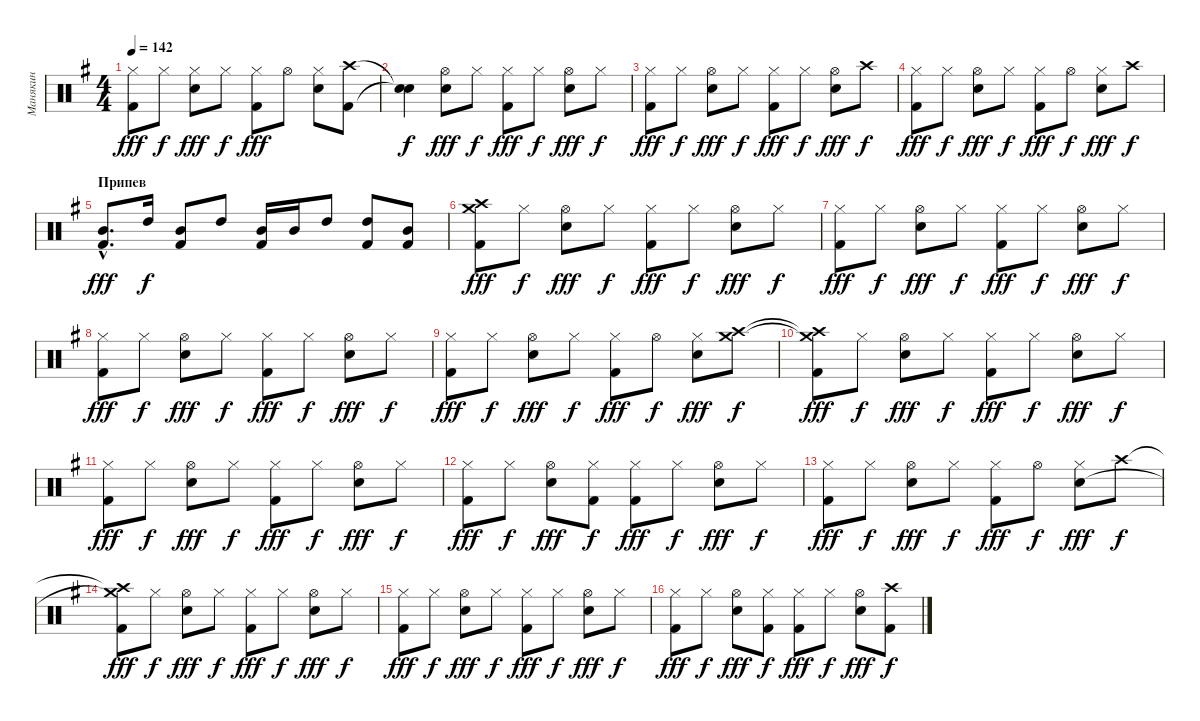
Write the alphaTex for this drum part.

\track ("Манякин" "Манякин") {instrument percussion}
\staff {score}
\articulation defaults
\ts (4 4)
\tempo 142
\clef neutral
\ks eminor
("Hi-Hat (closed)" "Kick (hit) 2").8{dy fff} "Hi-Hat (closed)".8{dy f} ("Hi-Hat (closed)" "Electric Snare (hit)").8{dy fff} "Hi-Hat (closed)".8{dy f} ("Hi-Hat (closed)" "Kick (hit) 2").8{dy fff} "Hi-Hat (open)".8 ("Hi-Hat (closed)" "Electric Snare (hit)").8 ("Crash high (hit)" "Kick (hit) 2").8 |
("Snare (hit)"{t} "Snare (hit)"{t}).4{dy f} ("Hi-Hat (open)" "Electric Snare (hit)").8{dy fff} "Hi-Hat (closed)".8{dy f} ("Hi-Hat (closed)" "Kick (hit) 2").8{dy fff} "Hi-Hat (closed)".8{dy f} ("Hi-Hat (open)" "Electric Snare (hit)").8{dy fff} "Hi-Hat (closed)".8{dy f} |
("Hi-Hat (closed)" "Kick (hit) 2").8{dy fff} "Hi-Hat (closed)".8{dy f} ("Hi-Hat (open)" "Electric Snare (hit)").8{dy fff} "Hi-Hat (closed)".8{dy f} ("Hi-Hat (closed)" "Kick (hit) 2").8{dy fff} "Hi-Hat (closed)".8{dy f} ("Hi-Hat (open)" "Electric Snare (hit)").8{dy fff} "Crash high (hit)".8{dy f} |
("Hi-Hat (closed)" "Kick (hit) 2").8{dy fff} "Hi-Hat (closed)".8{dy f} ("Hi-Hat (open)" "Electric Snare (hit)").8{dy fff} "Hi-Hat (closed)".8{dy f} ("Hi-Hat (closed)" "Kick (hit) 2").8{dy fff} "Hi-Hat (open)".8{dy f} ("Hi-Hat (closed)" "Electric Snare (hit)").8{dy fff} "Crash high (hit)".8{dy f} |
\section ("" "Припев")
("Mid Tom (hit)"{hac} "Kick (hit) 2"{hac}).8{d dy fff} "High Tom (hit)".16{dy f} ("Mid Tom (hit)" "Kick (hit) 2").8 "High Tom (hit)".8 ("Mid Tom (hit)" "Kick (hit) 2").16 "Mid Tom (hit)".16 "High Tom (hit)".8 ("High Tom (hit)" "Kick (hit) 2").8 ("Mid Tom (hit)" "Kick (hit) 2").8 |
("Crash high (hit)" "Crash medium (hit)" "Kick (hit) 2").8{dy fff} "Hi-Hat (closed)".8{dy f} ("Hi-Hat (open)" "Electric Snare (hit)").8{dy fff} "Hi-Hat (closed)".8{dy f} ("Hi-Hat (closed)" "Kick (hit) 2").8{dy fff} "Hi-Hat (closed)".8{dy f} ("Hi-Hat (open)" "Electric Snare (hit)").8{dy fff} "Hi-Hat (closed)".8{dy f} |
("Hi-Hat (closed)" "Kick (hit) 2").8{dy fff} "Hi-Hat (closed)".8{dy f} ("Hi-Hat (open)" "Electric Snare (hit)").8{dy fff} "Hi-Hat (closed)".8{dy f} ("Hi-Hat (closed)" "Kick (hit) 2").8{dy fff} "Hi-Hat (closed)".8{dy f} ("Hi-Hat (open)" "Electric Snare (hit)").8{dy fff} "Hi-Hat (closed)".8{dy f} |
("Hi-Hat (closed)" "Kick (hit) 2").8{dy fff} "Hi-Hat (closed)".8{dy f} ("Hi-Hat (open)" "Electric Snare (hit)").8{dy fff} "Hi-Hat (closed)".8{dy f} ("Hi-Hat (closed)" "Kick (hit) 2").8{dy fff} "Hi-Hat (closed)".8{dy f} ("Hi-Hat (open)" "Electric Snare (hit)").8{dy fff} "Hi-Hat (closed)".8{dy f} |
("Hi-Hat (closed)" "Kick (hit) 2").8{dy fff} "Hi-Hat (closed)".8{dy f} ("Hi-Hat (open)" "Electric Snare (hit)").8{dy fff} "Hi-Hat (closed)".8{dy f} ("Hi-Hat (closed)" "Kick (hit) 2").8{dy fff} "Hi-Hat (open)".8{dy f} ("Hi-Hat (closed)" "Electric Snare (hit)").8{dy fff} ("Crash high (hit)" "Crash medium (hit)").8{dy f} |
("Crash high (hit)"{t} "Crash medium (hit)"{t} "Kick (hit) 2").8{dy fff} "Hi-Hat (closed)".8{dy f} ("Hi-Hat (open)" "Electric Snare (hit)").8{dy fff} "Hi-Hat (closed)".8{dy f} ("Hi-Hat (closed)" "Kick (hit) 2").8{dy fff} "Hi-Hat (closed)".8{dy f} ("Hi-Hat (open)" "Electric Snare (hit)").8{dy fff} "Hi-Hat (closed)".8{dy f} |
("Hi-Hat (closed)" "Kick (hit) 2").8{dy fff} "Hi-Hat (closed)".8{dy f} ("Hi-Hat (open)" "Electric Snare (hit)").8{dy fff} "Hi-Hat (closed)".8{dy f} ("Hi-Hat (closed)" "Kick (hit) 2").8{dy fff} "Hi-Hat (closed)".8{dy f} ("Hi-Hat (open)" "Electric Snare (hit)").8{dy fff} "Hi-Hat (closed)".8{dy f} |
("Hi-Hat (closed)" "Kick (hit) 2").8{dy fff} "Hi-Hat (closed)".8{dy f} ("Hi-Hat (open)" "Electric Snare (hit)").8{dy fff} ("Hi-Hat (closed)" "Kick (hit) 2").8{dy f} ("Hi-Hat (closed)" "Kick (hit) 2").8{dy fff} "Hi-Hat (closed)".8{dy f} ("Hi-Hat (open)" "Electric Snare (hit)").8{dy fff} "Hi-Hat (closed)".8{dy f} |
("Hi-Hat (closed)" "Kick (hit) 2").8{dy fff} "Hi-Hat (closed)".8{dy f} ("Hi-Hat (open)" "Electric Snare (hit)").8{dy fff} "Hi-Hat (closed)".8{dy f} ("Hi-Hat (closed)" "Kick (hit) 2").8{dy fff} "Hi-Hat (open)".8{dy f} ("Hi-Hat (closed)" "Electric Snare (hit)").8{dy fff} "Crash high (hit)".8{dy f} |
("Crash high (hit)"{t} "Crash medium (hit)"{t} "Kick (hit) 2").8{dy fff} "Hi-Hat (closed)".8{dy f} ("Hi-Hat (open)" "Electric Snare (hit)").8{dy fff} "Hi-Hat (closed)".8{dy f} ("Hi-Hat (closed)" "Kick (hit) 2").8{dy fff} "Hi-Hat (closed)".8{dy f} ("Hi-Hat (open)" "Electric Snare (hit)").8{dy fff} "Hi-Hat (closed)".8{dy f} |
("Hi-Hat (closed)" "Kick (hit) 2").8{dy fff} "Hi-Hat (closed)".8{dy f} ("Hi-Hat (open)" "Electric Snare (hit)").8{dy fff} "Hi-Hat (closed)".8{dy f} ("Hi-Hat (closed)" "Kick (hit) 2").8{dy fff} "Hi-Hat (closed)".8{dy f} ("Hi-Hat (open)" "Electric Snare (hit)").8{dy fff} "Hi-Hat (closed)".8{dy f} |
("Hi-Hat (closed)" "Kick (hit) 2").8{dy fff} "Hi-Hat (closed)".8{dy f} ("Hi-Hat (open)" "Electric Snare (hit)").8{dy fff} ("Hi-Hat (closed)" "Kick (hit) 2").8{dy f} ("Hi-Hat (closed)" "Kick (hit) 2").8{dy fff} "Hi-Hat (closed)".8{dy f} ("Hi-Hat (open)" "Electric Snare (hit)").8{dy fff} ("Crash high (hit)" "Kick (hit) 2").8{dy f}
